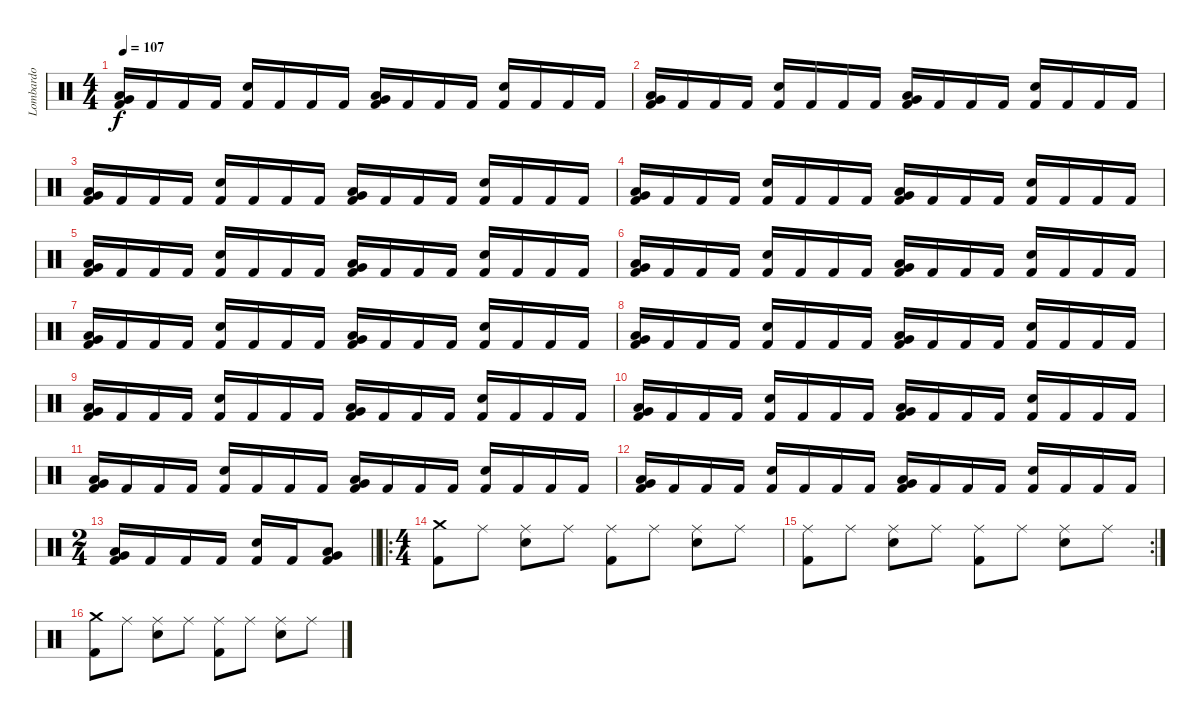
\track ("Lombardo" "Lombardo") {instrument percussion}
\staff {score}
\articulation defaults
\ts (4 4)
\tempo 107
\clef neutral
\ks c
("Very Low Tom (hit)" "Low Floor Tom (hit)" "Kick (hit) 2").16{dy f} "Kick (hit) 2".16 "Kick (hit) 2".16 "Kick (hit) 2".16 ("Snare (hit) 2" "Kick (hit) 2").16 "Kick (hit) 2".16 "Kick (hit) 2".16 "Kick (hit) 2".16 ("Very Low Tom (hit)" "Low Floor Tom (hit)" "Kick (hit) 2").16 "Kick (hit) 2".16 "Kick (hit) 2".16 "Kick (hit) 2".16 ("Snare (hit) 2" "Kick (hit) 2").16 "Kick (hit) 2".16 "Kick (hit) 2".16 "Kick (hit) 2".16 |
("Very Low Tom (hit)" "Low Floor Tom (hit)" "Kick (hit) 2").16 "Kick (hit) 2".16 "Kick (hit) 2".16 "Kick (hit) 2".16 ("Snare (hit) 2" "Kick (hit) 2").16 "Kick (hit) 2".16 "Kick (hit) 2".16 "Kick (hit) 2".16 ("Very Low Tom (hit)" "Low Floor Tom (hit)" "Kick (hit) 2").16 "Kick (hit) 2".16 "Kick (hit) 2".16 "Kick (hit) 2".16 ("Snare (hit) 2" "Kick (hit) 2").16 "Kick (hit) 2".16 "Kick (hit) 2".16 "Kick (hit) 2".16 |
("Very Low Tom (hit)" "Low Floor Tom (hit)" "Kick (hit) 2").16 "Kick (hit) 2".16 "Kick (hit) 2".16 "Kick (hit) 2".16 ("Snare (hit) 2" "Kick (hit) 2").16 "Kick (hit) 2".16 "Kick (hit) 2".16 "Kick (hit) 2".16 ("Very Low Tom (hit)" "Low Floor Tom (hit)" "Kick (hit) 2").16 "Kick (hit) 2".16 "Kick (hit) 2".16 "Kick (hit) 2".16 ("Snare (hit) 2" "Kick (hit) 2").16 "Kick (hit) 2".16 "Kick (hit) 2".16 "Kick (hit) 2".16 |
("Very Low Tom (hit)" "Low Floor Tom (hit)" "Kick (hit) 2").16 "Kick (hit) 2".16 "Kick (hit) 2".16 "Kick (hit) 2".16 ("Snare (hit) 2" "Kick (hit) 2").16 "Kick (hit) 2".16 "Kick (hit) 2".16 "Kick (hit) 2".16 ("Very Low Tom (hit)" "Low Floor Tom (hit)" "Kick (hit) 2").16 "Kick (hit) 2".16 "Kick (hit) 2".16 "Kick (hit) 2".16 ("Snare (hit) 2" "Kick (hit) 2").16 "Kick (hit) 2".16 "Kick (hit) 2".16 "Kick (hit) 2".16 |
("Very Low Tom (hit)" "Low Floor Tom (hit)" "Kick (hit) 2").16 "Kick (hit) 2".16 "Kick (hit) 2".16 "Kick (hit) 2".16 ("Snare (hit) 2" "Kick (hit) 2").16 "Kick (hit) 2".16 "Kick (hit) 2".16 "Kick (hit) 2".16 ("Very Low Tom (hit)" "Low Floor Tom (hit)" "Kick (hit) 2").16 "Kick (hit) 2".16 "Kick (hit) 2".16 "Kick (hit) 2".16 ("Snare (hit) 2" "Kick (hit) 2").16 "Kick (hit) 2".16 "Kick (hit) 2".16 "Kick (hit) 2".16 |
("Very Low Tom (hit)" "Low Floor Tom (hit)" "Kick (hit) 2").16 "Kick (hit) 2".16 "Kick (hit) 2".16 "Kick (hit) 2".16 ("Snare (hit) 2" "Kick (hit) 2").16 "Kick (hit) 2".16 "Kick (hit) 2".16 "Kick (hit) 2".16 ("Very Low Tom (hit)" "Low Floor Tom (hit)" "Kick (hit) 2").16 "Kick (hit) 2".16 "Kick (hit) 2".16 "Kick (hit) 2".16 ("Snare (hit) 2" "Kick (hit) 2").16 "Kick (hit) 2".16 "Kick (hit) 2".16 "Kick (hit) 2".16 |
("Very Low Tom (hit)" "Low Floor Tom (hit)" "Kick (hit) 2").16 "Kick (hit) 2".16 "Kick (hit) 2".16 "Kick (hit) 2".16 ("Snare (hit) 2" "Kick (hit) 2").16 "Kick (hit) 2".16 "Kick (hit) 2".16 "Kick (hit) 2".16 ("Very Low Tom (hit)" "Low Floor Tom (hit)" "Kick (hit) 2").16 "Kick (hit) 2".16 "Kick (hit) 2".16 "Kick (hit) 2".16 ("Snare (hit) 2" "Kick (hit) 2").16 "Kick (hit) 2".16 "Kick (hit) 2".16 "Kick (hit) 2".16 |
("Very Low Tom (hit)" "Low Floor Tom (hit)" "Kick (hit) 2").16 "Kick (hit) 2".16 "Kick (hit) 2".16 "Kick (hit) 2".16 ("Snare (hit) 2" "Kick (hit) 2").16 "Kick (hit) 2".16 "Kick (hit) 2".16 "Kick (hit) 2".16 ("Very Low Tom (hit)" "Low Floor Tom (hit)" "Kick (hit) 2").16 "Kick (hit) 2".16 "Kick (hit) 2".16 "Kick (hit) 2".16 ("Snare (hit) 2" "Kick (hit) 2").16 "Kick (hit) 2".16 "Kick (hit) 2".16 "Kick (hit) 2".16 |
("Very Low Tom (hit)" "Low Floor Tom (hit)" "Kick (hit) 2").16 "Kick (hit) 2".16 "Kick (hit) 2".16 "Kick (hit) 2".16 ("Snare (hit) 2" "Kick (hit) 2").16 "Kick (hit) 2".16 "Kick (hit) 2".16 "Kick (hit) 2".16 ("Very Low Tom (hit)" "Low Floor Tom (hit)" "Kick (hit) 2").16 "Kick (hit) 2".16 "Kick (hit) 2".16 "Kick (hit) 2".16 ("Snare (hit) 2" "Kick (hit) 2").16 "Kick (hit) 2".16 "Kick (hit) 2".16 "Kick (hit) 2".16 |
("Very Low Tom (hit)" "Low Floor Tom (hit)" "Kick (hit) 2").16 "Kick (hit) 2".16 "Kick (hit) 2".16 "Kick (hit) 2".16 ("Snare (hit) 2" "Kick (hit) 2").16 "Kick (hit) 2".16 "Kick (hit) 2".16 "Kick (hit) 2".16 ("Very Low Tom (hit)" "Low Floor Tom (hit)" "Kick (hit) 2").16 "Kick (hit) 2".16 "Kick (hit) 2".16 "Kick (hit) 2".16 ("Snare (hit) 2" "Kick (hit) 2").16 "Kick (hit) 2".16 "Kick (hit) 2".16 "Kick (hit) 2".16 |
("Very Low Tom (hit)" "Low Floor Tom (hit)" "Kick (hit) 2").16 "Kick (hit) 2".16 "Kick (hit) 2".16 "Kick (hit) 2".16 ("Snare (hit) 2" "Kick (hit) 2").16 "Kick (hit) 2".16 "Kick (hit) 2".16 "Kick (hit) 2".16 ("Very Low Tom (hit)" "Low Floor Tom (hit)" "Kick (hit) 2").16 "Kick (hit) 2".16 "Kick (hit) 2".16 "Kick (hit) 2".16 ("Snare (hit) 2" "Kick (hit) 2").16 "Kick (hit) 2".16 "Kick (hit) 2".16 "Kick (hit) 2".16 |
("Very Low Tom (hit)" "Low Floor Tom (hit)" "Kick (hit) 2").16 "Kick (hit) 2".16 "Kick (hit) 2".16 "Kick (hit) 2".16 ("Snare (hit) 2" "Kick (hit) 2").16 "Kick (hit) 2".16 "Kick (hit) 2".16 "Kick (hit) 2".16 ("Very Low Tom (hit)" "Low Floor Tom (hit)" "Kick (hit) 2").16 "Kick (hit) 2".16 "Kick (hit) 2".16 "Kick (hit) 2".16 ("Snare (hit) 2" "Kick (hit) 2").16 "Kick (hit) 2".16 "Kick (hit) 2".16 "Kick (hit) 2".16 |
\ts (2 4)
\barLineRight lightlight
("Very Low Tom (hit)" "Low Floor Tom (hit)" "Kick (hit) 2").16 "Kick (hit) 2".16 "Kick (hit) 2".16 "Kick (hit) 2".16 ("Snare (hit) 2" "Kick (hit) 2").16 "Kick (hit) 2".16 ("Very Low Tom (hit)" "Low Floor Tom (hit)" "Kick (hit) 2").8 |
\ro
\ts (4 4)
("Crash medium (hit)" "Kick (hit) 2").8 "Ride (middle)".8 ("Ride (middle)" "Snare (hit) 2").8 "Ride (middle)".8 ("Ride (middle)" "Kick (hit) 2").8 "Ride (middle)".8 ("Ride (middle)" "Snare (hit) 2").8 "Ride (middle)".8 |
\rc 2
("Ride (middle)" "Kick (hit) 2").8 "Ride (middle)".8 ("Ride (middle)" "Snare (hit) 2").8 "Ride (middle)".8 ("Ride (middle)" "Kick (hit) 2").8 "Ride (middle)".8 ("Ride (middle)" "Snare (hit) 2").8 "Ride (middle)".8 |
("Crash medium (hit)" "Kick (hit) 2").8 "Ride (middle)".8 ("Ride (middle)" "Snare (hit) 2").8 "Ride (middle)".8 ("Ride (middle)" "Kick (hit) 2").8 "Ride (middle)".8 ("Ride (middle)" "Snare (hit) 2").8 "Ride (middle)".8
